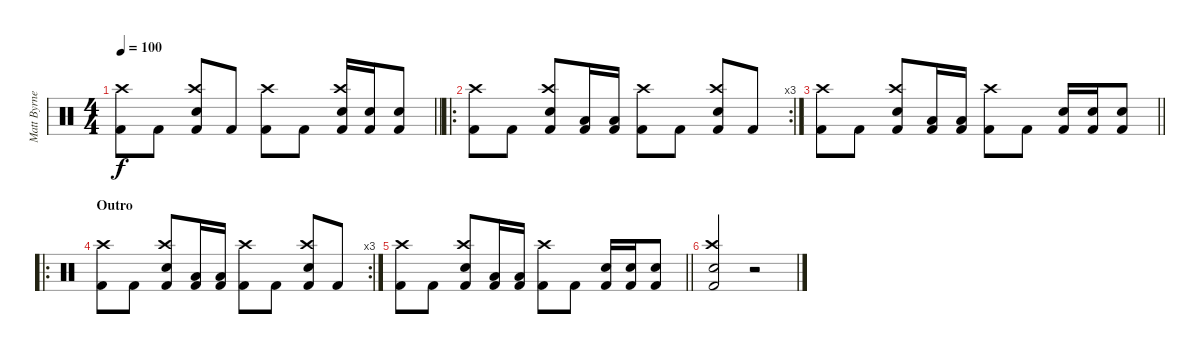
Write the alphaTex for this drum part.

\track ("Matt Byrne" "Matt Byrne") {instrument percussion}
\staff {score}
\articulation defaults
\ts (4 4)
\tempo 100
\clef neutral
\barLineRight lightlight
\ks c
("Kick (hit) 2" "Crash high (hit)").8{dy f} "Kick (hit) 2".8 ("Crash high (hit)" "Electric Snare (hit)" "Kick (hit) 2").8 "Kick (hit) 2".8 ("Kick (hit) 2" "Crash high (hit)").8 "Kick (hit) 2".8 ("Crash high (hit)" "Electric Snare (hit)" "Kick (hit) 2").16 ("Electric Snare (hit)" "Kick (hit) 2").16 ("Electric Snare (hit)" "Kick (hit) 2").8 |
\ro
\rc 3
("Kick (hit) 2" "Crash high (hit)").8 "Kick (hit) 2".8 ("Crash high (hit)" "Electric Snare (hit)" "Kick (hit) 2").8 ("Low Floor Tom (hit)" "Kick (hit) 2").16 ("Low Floor Tom (hit)" "Kick (hit) 2").16 ("Kick (hit) 2" "Crash high (hit)").8 "Kick (hit) 2".8 ("Crash high (hit)" "Electric Snare (hit)" "Kick (hit) 2").8 "Kick (hit) 2".8 |
\barLineRight lightlight
("Kick (hit) 2" "Crash high (hit)").8 "Kick (hit) 2".8 ("Crash high (hit)" "Electric Snare (hit)" "Kick (hit) 2").8 ("Low Floor Tom (hit)" "Kick (hit) 2").16 ("Low Floor Tom (hit)" "Kick (hit) 2").16 ("Kick (hit) 2" "Crash high (hit)").8 "Kick (hit) 2".8 ("Electric Snare (hit)" "Kick (hit) 2").16 ("Electric Snare (hit)" "Kick (hit) 2").16 ("Electric Snare (hit)" "Kick (hit) 2").8 |
\ro
\rc 3
\section ("" "Outro")
("Kick (hit) 2" "Crash high (hit)").8 "Kick (hit) 2".8 ("Crash high (hit)" "Electric Snare (hit)" "Kick (hit) 2").8 ("Low Floor Tom (hit)" "Kick (hit) 2").16 ("Low Floor Tom (hit)" "Kick (hit) 2").16 ("Kick (hit) 2" "Crash high (hit)").8 "Kick (hit) 2".8 ("Crash high (hit)" "Electric Snare (hit)" "Kick (hit) 2").8 "Kick (hit) 2".8 |
\barLineRight lightlight
("Kick (hit) 2" "Crash high (hit)").8 "Kick (hit) 2".8 ("Crash high (hit)" "Electric Snare (hit)" "Kick (hit) 2").8 ("Low Floor Tom (hit)" "Kick (hit) 2").16 ("Low Floor Tom (hit)" "Kick (hit) 2").16 ("Kick (hit) 2" "Crash high (hit)").8 "Kick (hit) 2".8 ("Electric Snare (hit)" "Kick (hit) 2").16 ("Electric Snare (hit)" "Kick (hit) 2").16 ("Electric Snare (hit)" "Kick (hit) 2").8 |
("Crash high (hit)" "Kick (hit) 2" "Electric Snare (hit)").2 r.2
